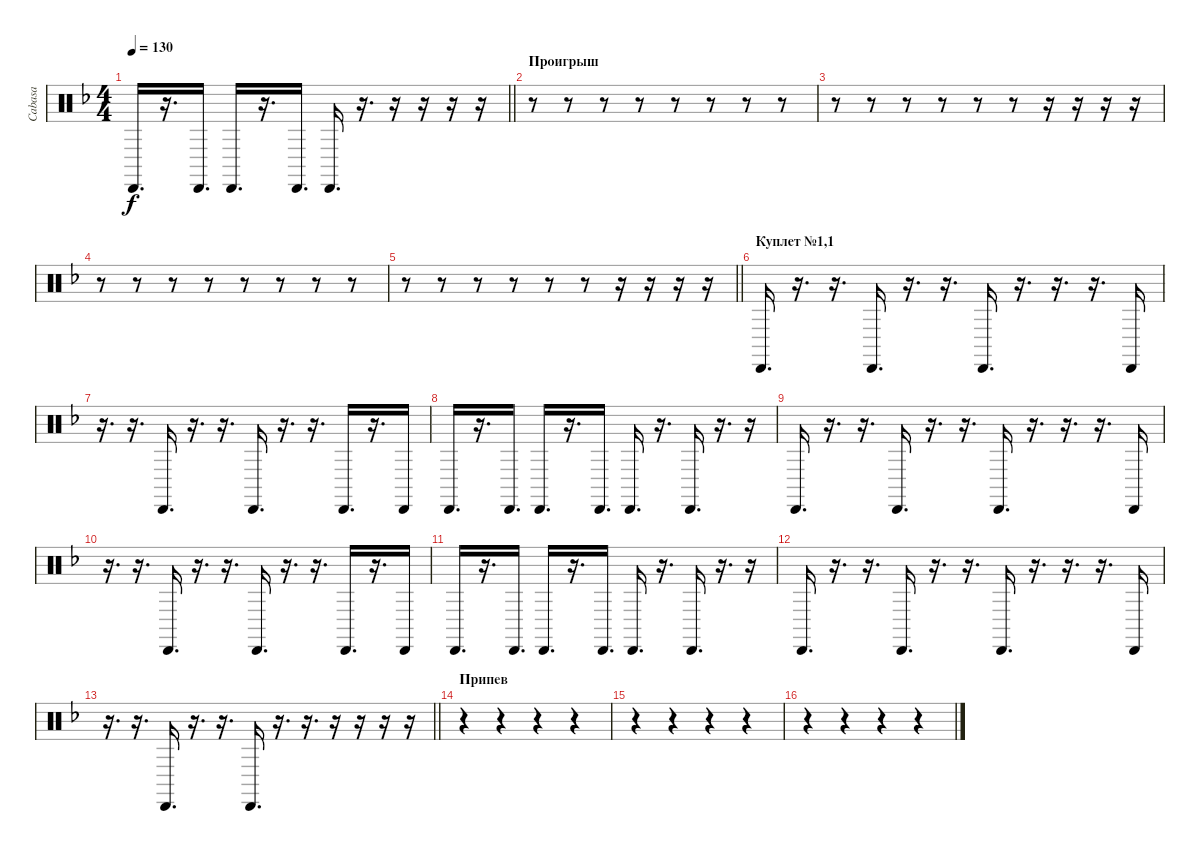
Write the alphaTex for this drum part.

\track ("Cabasa" "Cabasa") {instrument percussion}
\staff {score}
\articulation defaults
\ts (4 4)
\tempo 130
\clef neutral
\barLineRight lightlight
\ks f "Cabasa (hit)".16{d dy f}
r.16{d} "Cabasa (hit)".16{d} "Cabasa (hit)".16{d} r.16{d} "Cabasa (hit)".16{d} "Cabasa (hit)".16{d} r.16{d} r.16 r.16 r.16 r.16 |
\section ("" "Проигрыш")
r.8 r.8 r.8 r.8 r.8 r.8 r.8 r.8 |
r.8 r.8 r.8 r.8 r.8 r.8 r.16 r.16 r.16 r.16 |
r.8 r.8 r.8 r.8 r.8 r.8 r.8 r.8 |
\barLineRight lightlight
r.8 r.8 r.8 r.8 r.8 r.8 r.16 r.16 r.16 r.16 |
\section ("" "Куплет №1,1")
"Cabasa (hit)".16{d} r.16{d} r.16{d} "Cabasa (hit)".16{d} r.16{d} r.16{d} "Cabasa (hit)".16{d} r.16{d} r.16{d} r.16{d} "Cabasa (hit)".16 |
r.16{d} r.16{d} "Cabasa (hit)".16{d} r.16{d} r.16{d} "Cabasa (hit)".16{d} r.16{d} r.16{d} "Cabasa (hit)".16{d} r.16{d} "Cabasa (hit)".16 |
"Cabasa (hit)".16{d} r.16{d} "Cabasa (hit)".16{d} "Cabasa (hit)".16{d} r.16{d} "Cabasa (hit)".16{d} "Cabasa (hit)".16{d} r.16{d} "Cabasa (hit)".16{d} r.16{d} r.16 |
"Cabasa (hit)".16{d} r.16{d} r.16{d} "Cabasa (hit)".16{d} r.16{d} r.16{d} "Cabasa (hit)".16{d} r.16{d} r.16{d} r.16{d} "Cabasa (hit)".16 |
r.16{d} r.16{d} "Cabasa (hit)".16{d} r.16{d} r.16{d} "Cabasa (hit)".16{d} r.16{d} r.16{d} "Cabasa (hit)".16{d} r.16{d} "Cabasa (hit)".16 |
"Cabasa (hit)".16{d} r.16{d} "Cabasa (hit)".16{d} "Cabasa (hit)".16{d} r.16{d} "Cabasa (hit)".16{d} "Cabasa (hit)".16{d} r.16{d} "Cabasa (hit)".16{d} r.16{d} r.16 |
"Cabasa (hit)".16{d} r.16{d} r.16{d} "Cabasa (hit)".16{d} r.16{d} r.16{d} "Cabasa (hit)".16{d} r.16{d} r.16{d} r.16{d} "Cabasa (hit)".16 |
\barLineRight lightlight
r.16{d} r.16{d} "Cabasa (hit)".16{d} r.16{d} r.16{d} "Cabasa (hit)".16{d} r.16{d} r.16{d} r.16 r.16 r.16 r.16 |
\section ("" "Припев")
r.4 r.4 r.4 r.4 |
r.4 r.4 r.4 r.4 |
r.4 r.4 r.4 r.4
